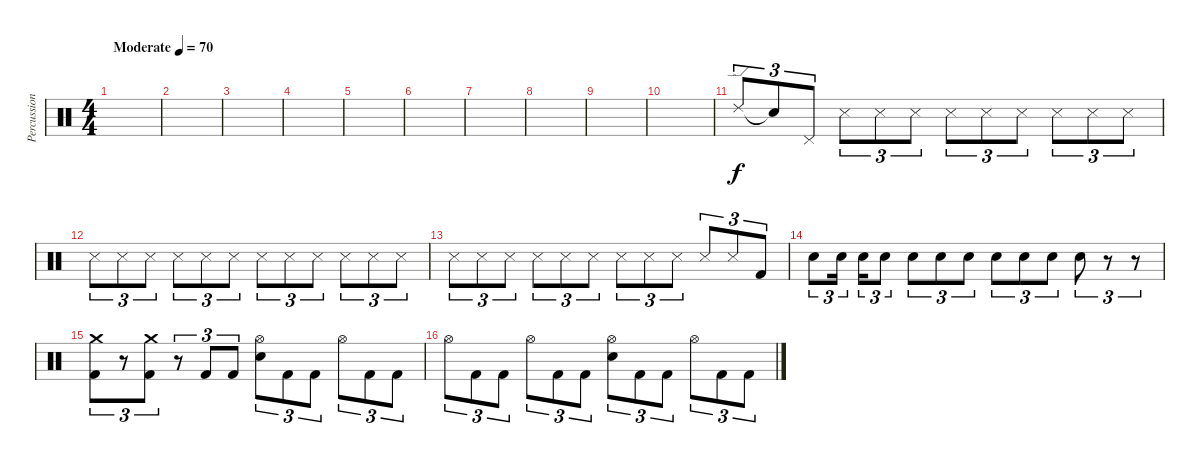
\track ("Percussion" "Percussion") {instrument percussion}
\staff {score}
\articulation defaults
\ts (4 4)
\tempo (70 "Moderate")
\tempo 140
\tempo (70 "Moderate")
\clef neutral
\ks c
|
|
|
|
|
|
|
|
|
|
"Ride (edge) 2".8{tu (3 2)} "Snare (hit)"{t}.8{tu (3 2)} "Pedal Hi-Hat (hit)".8{tu (3 2)} "Snare (side stick) 3".8{tu (3 2)} "Snare (side stick) 3".8{tu (3 2)} "Snare (side stick) 3".8{tu (3 2)} "Snare (side stick) 3".8{tu (3 2)} "Snare (side stick) 3".8{tu (3 2)} "Snare (side stick) 3".8{tu (3 2)} "Snare (side stick) 3".8{tu (3 2)} "Snare (side stick) 3".8{tu (3 2)} "Snare (side stick) 3".8{tu (3 2)} |
"Snare (side stick) 3".8{tu (3 2)} "Snare (side stick) 3".8{tu (3 2)} "Snare (side stick) 3".8{tu (3 2)} "Snare (side stick) 3".8{tu (3 2)} "Snare (side stick) 3".8{tu (3 2)} "Snare (side stick) 3".8{tu (3 2)} "Snare (side stick) 3".8{tu (3 2)} "Snare (side stick) 3".8{tu (3 2)} "Snare (side stick) 3".8{tu (3 2)} "Snare (side stick) 3".8{tu (3 2)} "Snare (side stick) 3".8{tu (3 2)} "Snare (side stick) 3".8{tu (3 2)} |
"Snare (side stick) 3".8{tu (3 2)} "Snare (side stick) 3".8{tu (3 2)} "Snare (side stick) 3".8{tu (3 2)} "Snare (side stick) 3".8{tu (3 2)} "Snare (side stick) 3".8{tu (3 2)} "Snare (side stick) 3".8{tu (3 2)} "Snare (side stick) 3".8{tu (3 2)} "Snare (side stick) 3".8{tu (3 2)} "Snare (side stick) 3".8{tu (3 2)} "Snare (side stick) 3".8{tu (3 2)} "Snare (side stick) 3".8{tu (3 2)} "Kick (hit) 2".8{tu (3 2)} |
"Electric Snare (hit)".8{tu (3 2)} "Electric Snare (hit)".16{tu (3 2) beam splitsecondary} "Electric Snare (hit)".16{tu (3 2)} "Electric Snare (hit)".8{tu (3 2)} "Electric Snare (hit)".8{tu (3 2)} "Electric Snare (hit)".8{tu (3 2)} "Electric Snare (hit)".8{tu (3 2)} "Electric Snare (hit)".8{tu (3 2)} "Electric Snare (hit)".8{tu (3 2)} "Electric Snare (hit)".8{tu (3 2)} "Electric Snare (hit)".8{tu (3 2)} r.8{tu (3 2)} r.8{tu (3 2)} |
("Crash medium (hit)" "Kick (hit) 2").8{tu (3 2)} r.8{tu (3 2)} ("Crash medium (hit)" "Kick (hit) 2").8{tu (3 2)} r.8{tu (3 2)} "Kick (hit) 2".8{tu (3 2)} "Kick (hit) 2".8{tu (3 2)} ("Hi-Hat (open)" "Electric Snare (hit)").8{tu (3 2)} "Kick (hit) 2".8{tu (3 2)} "Kick (hit) 2".8{tu (3 2)} "Hi-Hat (open)".8{tu (3 2)} "Kick (hit) 2".8{tu (3 2)} "Kick (hit) 2".8{tu (3 2)} |
"Hi-Hat (open)".8{tu (3 2)} "Kick (hit) 2".8{tu (3 2)} "Kick (hit) 2".8{tu (3 2)} "Hi-Hat (open)".8{tu (3 2)} "Kick (hit) 2".8{tu (3 2)} "Kick (hit) 2".8{tu (3 2)} ("Hi-Hat (open)" "Electric Snare (hit)").8{tu (3 2)} "Kick (hit) 2".8{tu (3 2)} "Kick (hit) 2".8{tu (3 2)} "Hi-Hat (open)".8{tu (3 2)} "Kick (hit) 2".8{tu (3 2)} "Kick (hit) 2".8{tu (3 2)}
